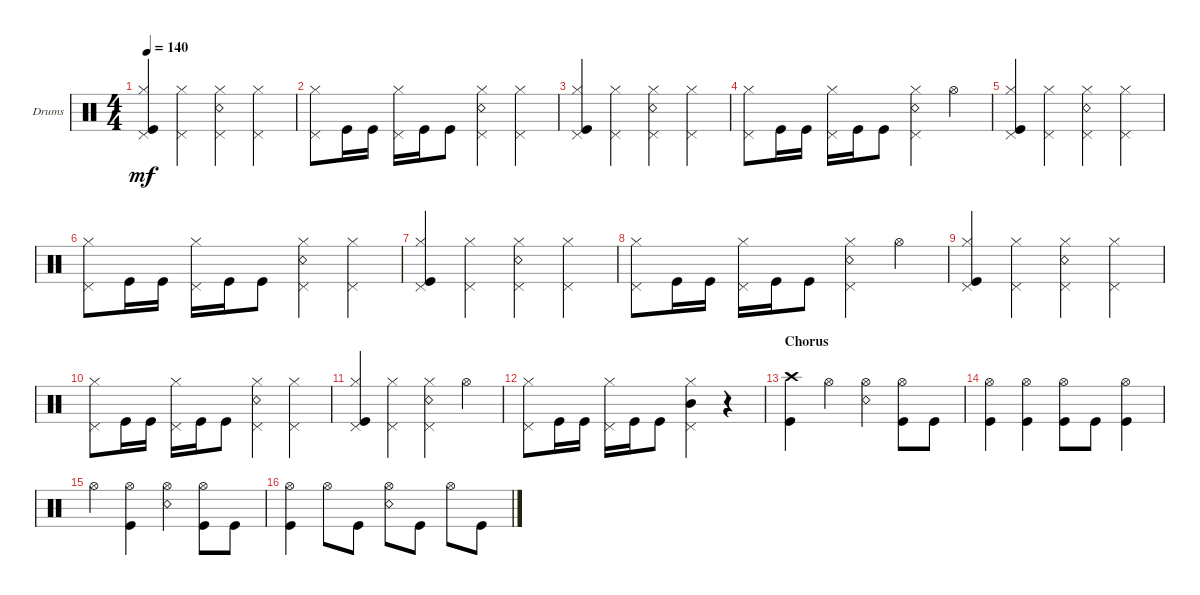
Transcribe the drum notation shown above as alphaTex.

\bracketExtendMode groupsimilarinstruments
\firstSystemTrackNameOrientation horizontal
\otherSystemsTrackNameOrientation horizontal
\track ("Drumkit" "Drums") {instrument percussion}
\staff {score}
\articulation defaults
\ts (4 4)
\tempo 140
\clef neutral
\ks c
("Kick (hit)" "Hi-Hat (closed)" "Pedal Hi-Hat (hit)").4{dy mf} ("Hi-Hat (closed)" "Pedal Hi-Hat (hit)").4 ("Hi-Hat (closed)" "Snare (rim shot)" "Pedal Hi-Hat (hit)").4 ("Hi-Hat (closed)" "Pedal Hi-Hat (hit)").4 |
("Hi-Hat (closed)" "Pedal Hi-Hat (hit)").8 "Kick (hit)".16 "Kick (hit)".16 ("Hi-Hat (closed)" "Pedal Hi-Hat (hit)").16 "Kick (hit)".16 "Kick (hit)".8 ("Snare (rim shot)" "Hi-Hat (closed)" "Pedal Hi-Hat (hit)").4 ("Hi-Hat (closed)" "Pedal Hi-Hat (hit)").4 |
("Kick (hit)" "Hi-Hat (closed)" "Pedal Hi-Hat (hit)").4 ("Hi-Hat (closed)" "Pedal Hi-Hat (hit)").4 ("Hi-Hat (closed)" "Snare (rim shot)" "Pedal Hi-Hat (hit)").4 ("Hi-Hat (closed)" "Pedal Hi-Hat (hit)").4 |
("Hi-Hat (closed)" "Pedal Hi-Hat (hit)").8 "Kick (hit)".16 "Kick (hit)".16 ("Hi-Hat (closed)" "Pedal Hi-Hat (hit)").16 "Kick (hit)".16 "Kick (hit)".8 ("Snare (rim shot)" "Hi-Hat (closed)" "Pedal Hi-Hat (hit)").4 "Hi-Hat (open)".4 |
("Kick (hit)" "Hi-Hat (closed)" "Pedal Hi-Hat (hit)").4 ("Hi-Hat (closed)" "Pedal Hi-Hat (hit)").4 ("Hi-Hat (closed)" "Snare (rim shot)" "Pedal Hi-Hat (hit)").4 ("Hi-Hat (closed)" "Pedal Hi-Hat (hit)").4 |
("Hi-Hat (closed)" "Pedal Hi-Hat (hit)").8 "Kick (hit)".16 "Kick (hit)".16 ("Hi-Hat (closed)" "Pedal Hi-Hat (hit)").16 "Kick (hit)".16 "Kick (hit)".8 ("Snare (rim shot)" "Hi-Hat (closed)" "Pedal Hi-Hat (hit)").4 ("Hi-Hat (closed)" "Pedal Hi-Hat (hit)").4 |
("Kick (hit)" "Hi-Hat (closed)" "Pedal Hi-Hat (hit)").4 ("Hi-Hat (closed)" "Pedal Hi-Hat (hit)").4 ("Hi-Hat (closed)" "Snare (rim shot)" "Pedal Hi-Hat (hit)").4 ("Hi-Hat (closed)" "Pedal Hi-Hat (hit)").4 |
("Hi-Hat (closed)" "Pedal Hi-Hat (hit)").8 "Kick (hit)".16 "Kick (hit)".16 ("Hi-Hat (closed)" "Pedal Hi-Hat (hit)").16 "Kick (hit)".16 "Kick (hit)".8 ("Snare (rim shot)" "Hi-Hat (closed)" "Pedal Hi-Hat (hit)").4 "Hi-Hat (open)".4 |
("Kick (hit)" "Hi-Hat (closed)" "Pedal Hi-Hat (hit)").4 ("Hi-Hat (closed)" "Pedal Hi-Hat (hit)").4 ("Hi-Hat (closed)" "Snare (rim shot)" "Pedal Hi-Hat (hit)").4 ("Hi-Hat (closed)" "Pedal Hi-Hat (hit)").4 |
("Hi-Hat (closed)" "Pedal Hi-Hat (hit)").8 "Kick (hit)".16 "Kick (hit)".16 ("Hi-Hat (closed)" "Pedal Hi-Hat (hit)").16 "Kick (hit)".16 "Kick (hit)".8 ("Snare (rim shot)" "Hi-Hat (closed)" "Pedal Hi-Hat (hit)").4 ("Hi-Hat (closed)" "Pedal Hi-Hat (hit)").4 |
("Kick (hit)" "Hi-Hat (closed)" "Pedal Hi-Hat (hit)").4 ("Hi-Hat (closed)" "Pedal Hi-Hat (hit)").4 ("Hi-Hat (closed)" "Snare (rim shot)" "Pedal Hi-Hat (hit)").4 "Hi-Hat (open)".4 |
("Hi-Hat (closed)" "Pedal Hi-Hat (hit)").8 "Kick (hit)".16 "Kick (hit)".16 ("Hi-Hat (closed)" "Pedal Hi-Hat (hit)").16 "Kick (hit)".16 "Kick (hit)".8 ("Hi-Hat (closed)" "Pedal Hi-Hat (hit)" "Mid Tom (hit)").4 r.4 |
\section ("" "Chorus")
("Kick (hit)" "Crash high (hit)").4 "Hi-Hat (open)".4 ("Snare (rim shot)" "Hi-Hat (open)").4 ("Hi-Hat (open)" "Kick (hit)").8 "Kick (hit)".8 |
("Kick (hit)" "Hi-Hat (open)").4 ("Kick (hit)" "Hi-Hat (open)").4 ("Kick (hit)" "Hi-Hat (open)").8 "Kick (hit)".8 ("Kick (hit)" "Hi-Hat (open)").4 |
"Hi-Hat (open)".4 ("Hi-Hat (open)" "Kick (hit)").4 ("Hi-Hat (open)" "Snare (rim shot)").4 ("Hi-Hat (open)" "Kick (hit)").8 "Kick (hit)".8 |
("Kick (hit)" "Hi-Hat (open)").4 "Hi-Hat (open)".8 "Kick (hit)".8 ("Snare (rim shot)" "Hi-Hat (open)").8 "Kick (hit)".8 "Hi-Hat (open)".8 "Kick (hit)".8
